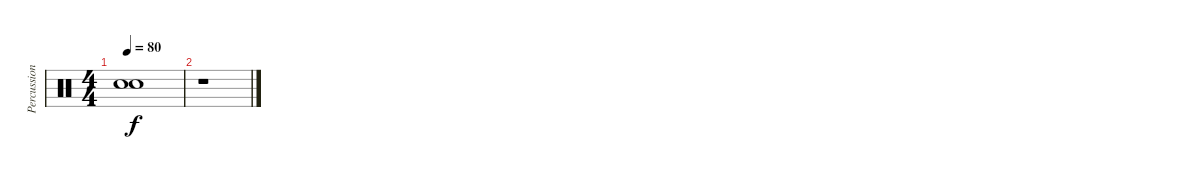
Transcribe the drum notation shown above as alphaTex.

\track ("Percussion" "Percussion") {instrument percussion}
\staff {score}
\articulation defaults
\ts (4 4)
\tempo 80
\clef neutral
\ks c
("Snare (hit)"{t} "Snare (hit)"{t}).1{dy f} |
r.1
